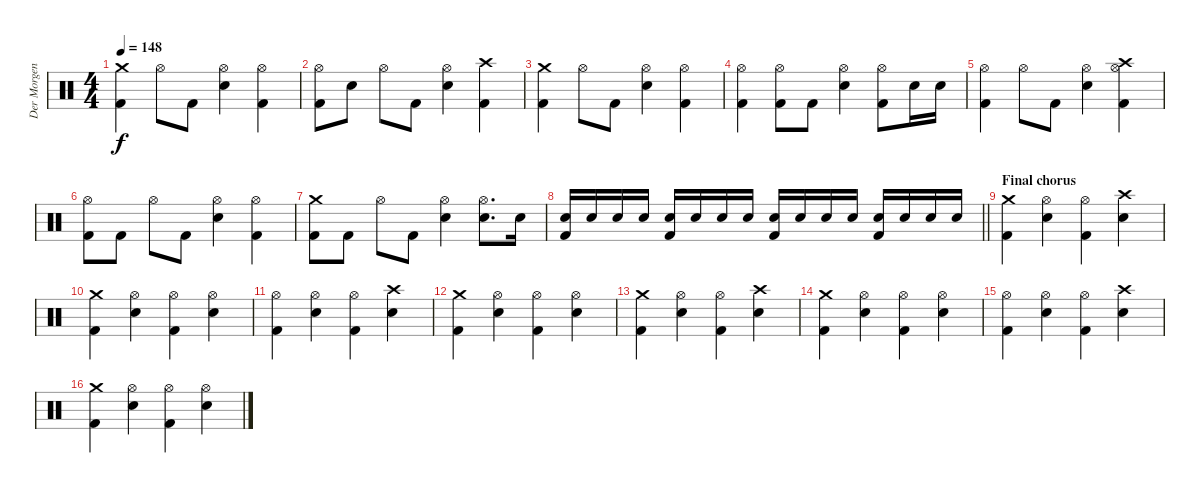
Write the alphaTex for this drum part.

\track ("Der Morgenstern" "Der Morgen") {instrument percussion}
\staff {score}
\articulation defaults
\ts (4 4)
\tempo 148
\clef neutral
\ks c
("Crash medium (hit)" "Kick (hit) 2").4{dy f} "Hi-Hat (open)".8 "Kick (hit) 2".8 ("Hi-Hat (open)" "Electric Snare (hit)").4 ("Hi-Hat (open)" "Kick (hit) 2").4 |
("Hi-Hat (open)" "Kick (hit) 2").8 "Electric Snare (hit)".8 "Hi-Hat (open)".8 "Kick (hit) 2".8 ("Hi-Hat (open)" "Electric Snare (hit)").4 ("Crash high (hit)" "Kick (hit) 2").4 |
("Crash medium (hit)" "Kick (hit) 2").4 "Hi-Hat (open)".8 "Kick (hit) 2".8 ("Hi-Hat (open)" "Electric Snare (hit)").4 ("Hi-Hat (open)" "Kick (hit) 2").4 |
("Hi-Hat (open)" "Kick (hit) 2").4 ("Hi-Hat (open)" "Kick (hit) 2").8 "Kick (hit) 2".8 ("Hi-Hat (open)" "Electric Snare (hit)").4 ("Hi-Hat (open)" "Kick (hit) 2").8 "Electric Snare (hit)".16 "Electric Snare (hit)".16 |
("Hi-Hat (open)" "Kick (hit) 2").4 "Hi-Hat (open)".8 "Kick (hit) 2".8 ("Hi-Hat (open)" "Electric Snare (hit)").4 ("Crash high (hit)" "Hi-Hat (open)" "Kick (hit) 2").4 |
("Hi-Hat (open)" "Kick (hit) 2").8 "Kick (hit) 2".8 "Hi-Hat (open)".8 "Kick (hit) 2".8 ("Hi-Hat (open)" "Electric Snare (hit)").4 ("Hi-Hat (open)" "Kick (hit) 2").4 |
("Crash medium (hit)" "Kick (hit) 2").8 "Kick (hit) 2".8 "Hi-Hat (open)".8 "Kick (hit) 2".8 ("Hi-Hat (open)" "Electric Snare (hit)").4 ("Hi-Hat (open)" "Electric Snare (hit)").8{d} "Electric Snare (hit)".16 |
\barLineRight lightlight
("Electric Snare (hit)" "Kick (hit) 2").16 "Electric Snare (hit)".16 "Electric Snare (hit)".16 "Electric Snare (hit)".16 ("Electric Snare (hit)" "Kick (hit) 2").16 "Electric Snare (hit)".16 "Electric Snare (hit)".16 "Electric Snare (hit)".16 ("Electric Snare (hit)" "Kick (hit) 2").16 "Electric Snare (hit)".16 "Electric Snare (hit)".16 "Electric Snare (hit)".16 ("Electric Snare (hit)" "Kick (hit) 2").16 "Electric Snare (hit)".16 "Electric Snare (hit)".16 "Electric Snare (hit)".16 |
\section ("" "Final chorus")
("Crash medium (hit)" "Kick (hit) 2").4 ("Hi-Hat (open)" "Electric Snare (hit)").4 ("Hi-Hat (open)" "Kick (hit) 2").4 ("Crash high (hit)" "Electric Snare (hit)").4 |
("Crash medium (hit)" "Kick (hit) 2").4 ("Hi-Hat (open)" "Electric Snare (hit)").4 ("Hi-Hat (open)" "Kick (hit) 2").4 ("Hi-Hat (open)" "Electric Snare (hit)").4 |
("Hi-Hat (open)" "Kick (hit) 2").4 ("Hi-Hat (open)" "Electric Snare (hit)").4 ("Hi-Hat (open)" "Kick (hit) 2").4 ("Crash high (hit)" "Electric Snare (hit)").4 |
("Crash medium (hit)" "Kick (hit) 2").4 ("Hi-Hat (open)" "Electric Snare (hit)").4 ("Hi-Hat (open)" "Kick (hit) 2").4 ("Hi-Hat (open)" "Electric Snare (hit)").4 |
("Crash medium (hit)" "Kick (hit) 2").4 ("Hi-Hat (open)" "Electric Snare (hit)").4 ("Hi-Hat (open)" "Kick (hit) 2").4 ("Crash high (hit)" "Electric Snare (hit)").4 |
("Crash medium (hit)" "Kick (hit) 2").4 ("Hi-Hat (open)" "Electric Snare (hit)").4 ("Hi-Hat (open)" "Kick (hit) 2").4 ("Hi-Hat (open)" "Electric Snare (hit)").4 |
("Hi-Hat (open)" "Kick (hit) 2").4 ("Hi-Hat (open)" "Electric Snare (hit)").4 ("Hi-Hat (open)" "Kick (hit) 2").4 ("Crash high (hit)" "Electric Snare (hit)").4 |
("Crash medium (hit)" "Kick (hit) 2").4 ("Hi-Hat (open)" "Electric Snare (hit)").4 ("Hi-Hat (open)" "Kick (hit) 2").4 ("Hi-Hat (open)" "Electric Snare (hit)").4
